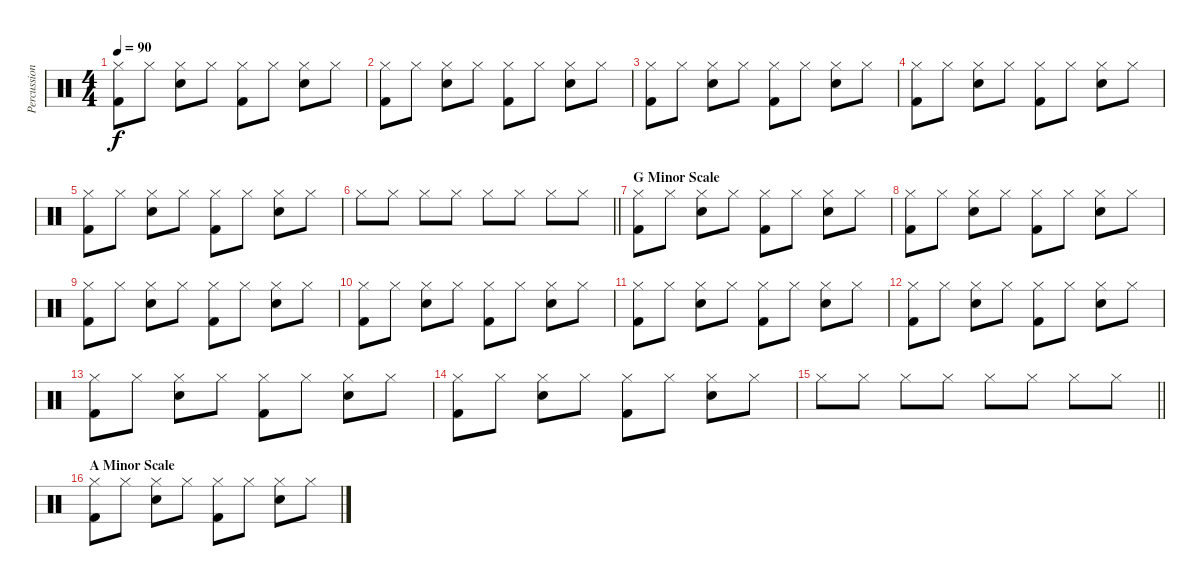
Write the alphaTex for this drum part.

\track ("Percussion" "Percussion") {instrument percussion}
\staff {score}
\articulation defaults
\ts (4 4)
\tempo 90
\clef neutral
\ks c
("Kick (hit) 2" "Hi-Hat (closed)").8{dy f} "Hi-Hat (closed)".8 ("Snare (hit) 2" "Hi-Hat (closed)").8 "Hi-Hat (closed)".8 ("Kick (hit) 2" "Hi-Hat (closed)").8 "Hi-Hat (closed)".8 ("Snare (hit) 2" "Hi-Hat (closed)").8 "Hi-Hat (closed)".8 |
("Kick (hit) 2" "Hi-Hat (closed)").8 "Hi-Hat (closed)".8 ("Snare (hit) 2" "Hi-Hat (closed)").8 "Hi-Hat (closed)".8 ("Kick (hit) 2" "Hi-Hat (closed)").8 "Hi-Hat (closed)".8 ("Snare (hit) 2" "Hi-Hat (closed)").8 "Hi-Hat (closed)".8 |
("Kick (hit) 2" "Hi-Hat (closed)").8 "Hi-Hat (closed)".8 ("Snare (hit) 2" "Hi-Hat (closed)").8 "Hi-Hat (closed)".8 ("Kick (hit) 2" "Hi-Hat (closed)").8 "Hi-Hat (closed)".8 ("Snare (hit) 2" "Hi-Hat (closed)").8 "Hi-Hat (closed)".8 |
("Kick (hit) 2" "Hi-Hat (closed)").8 "Hi-Hat (closed)".8 ("Snare (hit) 2" "Hi-Hat (closed)").8 "Hi-Hat (closed)".8 ("Kick (hit) 2" "Hi-Hat (closed)").8 "Hi-Hat (closed)".8 ("Snare (hit) 2" "Hi-Hat (closed)").8 "Hi-Hat (closed)".8 |
("Kick (hit) 2" "Hi-Hat (closed)").8 "Hi-Hat (closed)".8 ("Snare (hit) 2" "Hi-Hat (closed)").8 "Hi-Hat (closed)".8 ("Kick (hit) 2" "Hi-Hat (closed)").8 "Hi-Hat (closed)".8 ("Snare (hit) 2" "Hi-Hat (closed)").8 "Hi-Hat (closed)".8 |
\barLineRight lightlight "Hi-Hat (closed)".8 "Hi-Hat (closed)".8 "Hi-Hat (closed)".8 "Hi-Hat (closed)".8 "Hi-Hat (closed)".8 "Hi-Hat (closed)".8 "Hi-Hat (closed)".8 "Hi-Hat (closed)".8
|
\section ("" "G Minor Scale")
("Kick (hit) 2" "Hi-Hat (closed)").8 "Hi-Hat (closed)".8 ("Snare (hit) 2" "Hi-Hat (closed)").8 "Hi-Hat (closed)".8 ("Kick (hit) 2" "Hi-Hat (closed)").8 "Hi-Hat (closed)".8 ("Snare (hit) 2" "Hi-Hat (closed)").8 "Hi-Hat (closed)".8 |
("Kick (hit) 2" "Hi-Hat (closed)").8 "Hi-Hat (closed)".8 ("Snare (hit) 2" "Hi-Hat (closed)").8 "Hi-Hat (closed)".8 ("Kick (hit) 2" "Hi-Hat (closed)").8 "Hi-Hat (closed)".8 ("Snare (hit) 2" "Hi-Hat (closed)").8 "Hi-Hat (closed)".8 |
("Kick (hit) 2" "Hi-Hat (closed)").8 "Hi-Hat (closed)".8 ("Snare (hit) 2" "Hi-Hat (closed)").8 "Hi-Hat (closed)".8 ("Kick (hit) 2" "Hi-Hat (closed)").8 "Hi-Hat (closed)".8 ("Snare (hit) 2" "Hi-Hat (closed)").8 "Hi-Hat (closed)".8 |
("Kick (hit) 2" "Hi-Hat (closed)").8 "Hi-Hat (closed)".8 ("Snare (hit) 2" "Hi-Hat (closed)").8 "Hi-Hat (closed)".8 ("Kick (hit) 2" "Hi-Hat (closed)").8 "Hi-Hat (closed)".8 ("Snare (hit) 2" "Hi-Hat (closed)").8 "Hi-Hat (closed)".8 |
("Kick (hit) 2" "Hi-Hat (closed)").8 "Hi-Hat (closed)".8 ("Snare (hit) 2" "Hi-Hat (closed)").8 "Hi-Hat (closed)".8 ("Kick (hit) 2" "Hi-Hat (closed)").8 "Hi-Hat (closed)".8 ("Snare (hit) 2" "Hi-Hat (closed)").8 "Hi-Hat (closed)".8 |
("Kick (hit) 2" "Hi-Hat (closed)").8 "Hi-Hat (closed)".8 ("Snare (hit) 2" "Hi-Hat (closed)").8 "Hi-Hat (closed)".8 ("Kick (hit) 2" "Hi-Hat (closed)").8 "Hi-Hat (closed)".8 ("Snare (hit) 2" "Hi-Hat (closed)").8 "Hi-Hat (closed)".8 |
("Kick (hit) 2" "Hi-Hat (closed)").8 "Hi-Hat (closed)".8 ("Snare (hit) 2" "Hi-Hat (closed)").8 "Hi-Hat (closed)".8 ("Kick (hit) 2" "Hi-Hat (closed)").8 "Hi-Hat (closed)".8 ("Snare (hit) 2" "Hi-Hat (closed)").8 "Hi-Hat (closed)".8 |
("Kick (hit) 2" "Hi-Hat (closed)").8 "Hi-Hat (closed)".8 ("Snare (hit) 2" "Hi-Hat (closed)").8 "Hi-Hat (closed)".8 ("Kick (hit) 2" "Hi-Hat (closed)").8 "Hi-Hat (closed)".8 ("Snare (hit) 2" "Hi-Hat (closed)").8 "Hi-Hat (closed)".8 |
\barLineRight lightlight "Hi-Hat (closed)".8 "Hi-Hat (closed)".8 "Hi-Hat (closed)".8 "Hi-Hat (closed)".8 "Hi-Hat (closed)".8 "Hi-Hat (closed)".8 "Hi-Hat (closed)".8 "Hi-Hat (closed)".8
|
\section ("" "A Minor Scale")
("Kick (hit) 2" "Hi-Hat (closed)").8 "Hi-Hat (closed)".8 ("Snare (hit) 2" "Hi-Hat (closed)").8 "Hi-Hat (closed)".8 ("Kick (hit) 2" "Hi-Hat (closed)").8 "Hi-Hat (closed)".8 ("Snare (hit) 2" "Hi-Hat (closed)").8 "Hi-Hat (closed)".8
